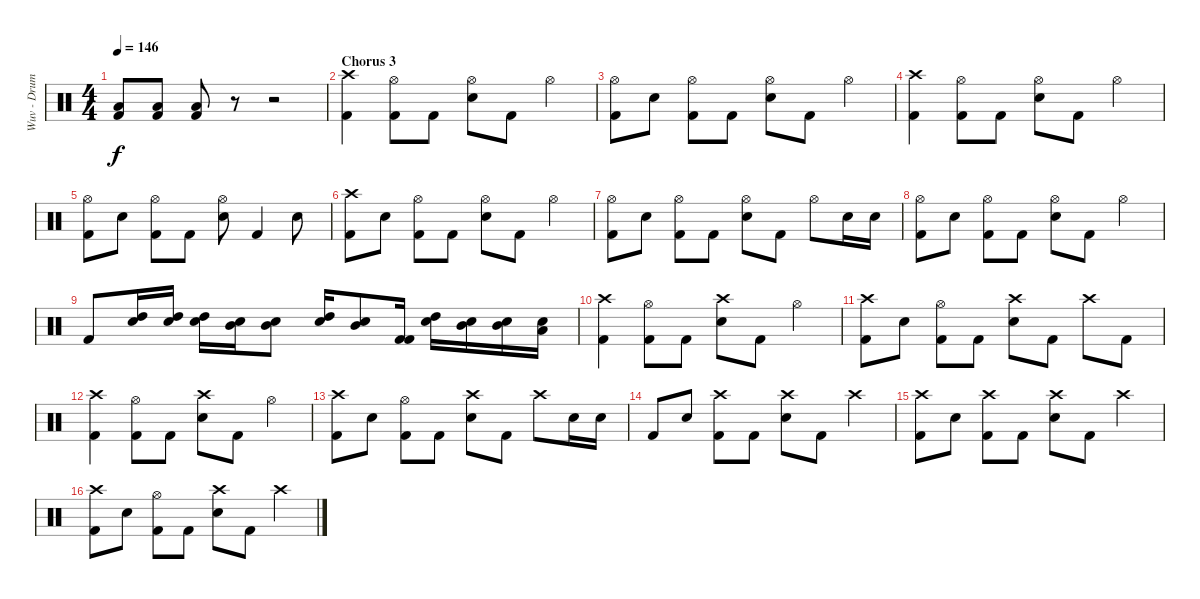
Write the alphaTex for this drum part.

\track ("Wuv - Drums" "Wuv - Drum") {instrument percussion}
\staff {score}
\articulation defaults
\ts (4 4)
\tempo 146
\clef neutral
\ks c
("Low Tom (hit)" "Kick (hit) 2").8{dy f} ("Low Tom (hit)" "Kick (hit) 2").8 ("Low Tom (hit)" "Kick (hit) 2").8 r.8 r.2 |
\section ("" "Chorus 3")
("Crash high (hit)" "Kick (hit) 2").4 ("Hi-Hat (open)" "Kick (hit) 2").8 "Kick (hit) 2".8 ("Hi-Hat (open)" "Electric Snare (hit)").8 "Kick (hit) 2".8 "Hi-Hat (open)".4 |
("Hi-Hat (open)" "Kick (hit) 2").8 "Electric Snare (hit)".8 ("Hi-Hat (open)" "Kick (hit) 2").8 "Kick (hit) 2".8 ("Hi-Hat (open)" "Electric Snare (hit)").8 "Kick (hit) 2".8 "Hi-Hat (open)".4 |
("Crash high (hit)" "Kick (hit) 2").4 ("Hi-Hat (open)" "Kick (hit) 2").8 "Kick (hit) 2".8 ("Hi-Hat (open)" "Electric Snare (hit)").8 "Kick (hit) 2".8 "Hi-Hat (open)".4 |
("Hi-Hat (open)" "Kick (hit) 2").8 "Electric Snare (hit)".8 ("Hi-Hat (open)" "Kick (hit) 2").8 "Kick (hit) 2".8 ("Hi-Hat (open)" "Electric Snare (hit)").8 "Kick (hit) 2".4 "Electric Snare (hit)".8 |
("Crash high (hit)" "Kick (hit) 2").8 "Electric Snare (hit)".8 ("Hi-Hat (open)" "Kick (hit) 2").8 "Kick (hit) 2".8 ("Hi-Hat (open)" "Electric Snare (hit)").8 "Kick (hit) 2".8 "Hi-Hat (open)".4 |
("Hi-Hat (open)" "Kick (hit) 2").8 "Electric Snare (hit)".8 ("Hi-Hat (open)" "Kick (hit) 2").8 "Kick (hit) 2".8 ("Hi-Hat (open)" "Electric Snare (hit)").8 "Kick (hit) 2".8 "Hi-Hat (open)".8 "Electric Snare (hit)".16 "Electric Snare (hit)".16 |
("Hi-Hat (open)" "Kick (hit) 2").8 "Electric Snare (hit)".8 ("Hi-Hat (open)" "Kick (hit) 2").8 "Kick (hit) 2".8 ("Hi-Hat (open)" "Electric Snare (hit)").8 "Kick (hit) 2".8 "Hi-Hat (open)".4 |
"Kick (hit) 2".8 ("High Tom (hit)" "Electric Snare (hit)").16 ("High Tom (hit)" "Electric Snare (hit)").16 ("High Tom (hit)" "Electric Snare (hit)").16 ("Mid Tom (hit)" "Electric Snare (hit)").16 ("Mid Tom (hit)" "Electric Snare (hit)").8 ("High Tom (hit)" "Electric Snare (hit)").16 ("Mid Tom (hit)" "Electric Snare (hit)").8 ("Kick (hit) 2" "Kick (hit) 2").16 ("High Tom (hit)" "Electric Snare (hit)").16 ("Mid Tom (hit)" "Electric Snare (hit)").16 ("Mid Tom (hit)" "Electric Snare (hit)").16 ("Low Tom (hit)" "Electric Snare (hit)").16 |
("Crash high (hit)" "Kick (hit) 2").4 ("Hi-Hat (open)" "Kick (hit) 2").8 "Kick (hit) 2".8 ("Crash high (hit)" "Electric Snare (hit)").8 "Kick (hit) 2".8 "Hi-Hat (open)".4 |
("Crash high (hit)" "Kick (hit) 2").8 "Electric Snare (hit)".8 ("Hi-Hat (open)" "Kick (hit) 2").8 "Kick (hit) 2".8 ("Crash high (hit)" "Electric Snare (hit)").8 "Kick (hit) 2".8 "Crash high (hit)".8 "Kick (hit) 2".8 |
("Crash high (hit)" "Kick (hit) 2").4 ("Hi-Hat (open)" "Kick (hit) 2").8 "Kick (hit) 2".8 ("Crash high (hit)" "Electric Snare (hit)").8 "Kick (hit) 2".8 "Hi-Hat (open)".4 |
("Crash high (hit)" "Kick (hit) 2").8 "Electric Snare (hit)".8 ("Hi-Hat (open)" "Kick (hit) 2").8 "Kick (hit) 2".8 ("Crash high (hit)" "Electric Snare (hit)").8 "Kick (hit) 2".8 "Crash high (hit)".8 "Electric Snare (hit)".16 "Electric Snare (hit)".16 |
"Kick (hit) 2".8 "Electric Snare (hit)".8 ("Crash high (hit)" "Kick (hit) 2").8 "Kick (hit) 2".8 ("Crash high (hit)" "Electric Snare (hit)").8 "Kick (hit) 2".8 "Crash high (hit)".4 |
("Crash high (hit)" "Kick (hit) 2").8 "Electric Snare (hit)".8 ("Crash high (hit)" "Kick (hit) 2").8 "Kick (hit) 2".8 ("Crash high (hit)" "Electric Snare (hit)").8 "Kick (hit) 2".8 "Crash high (hit)".4 |
("Crash high (hit)" "Kick (hit) 2").8 "Electric Snare (hit)".8 ("Hi-Hat (open)" "Kick (hit) 2").8 "Kick (hit) 2".8 ("Crash high (hit)" "Electric Snare (hit)").8 "Kick (hit) 2".8 "Crash high (hit)".4
